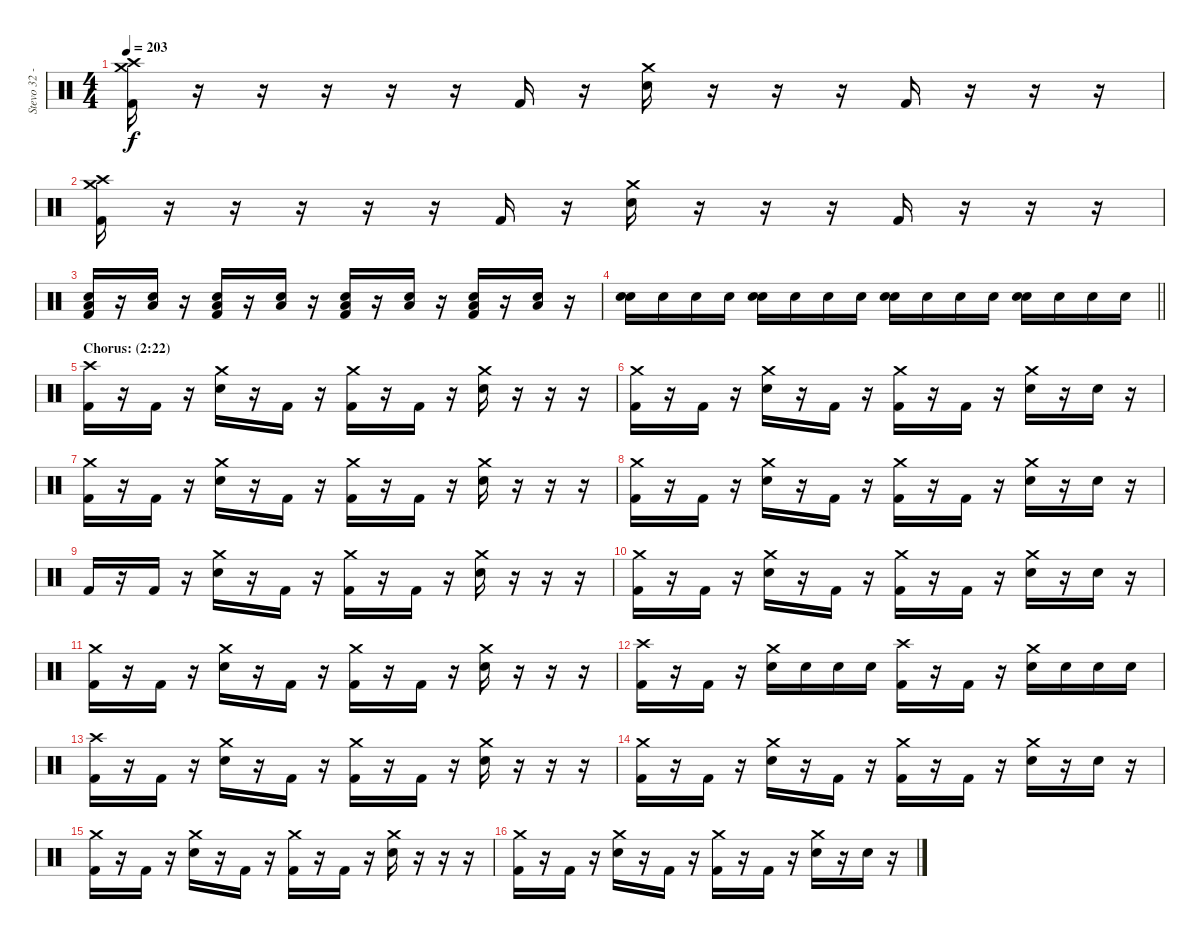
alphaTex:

\track ("Stevo 32 - Drums" "Stevo 32 -") {instrument percussion}
\staff {score}
\articulation defaults
\ts (4 4)
\tempo 203
\clef neutral
\ks c
("Crash high (hit)" "Crash medium (hit)" "Kick (hit) 2").16{dy f} r.16 r.16 r.16 r.16 r.16 "Kick (hit) 2".16 r.16 ("Crash medium (hit)" "Snare (hit) 2").16 r.16 r.16 r.16 "Kick (hit) 2".16 r.16 r.16 r.16 |
("Crash high (hit)" "Crash medium (hit)" "Kick (hit) 2").16 r.16 r.16 r.16 r.16 r.16 "Kick (hit) 2".16 r.16 ("Crash medium (hit)" "Snare (hit) 2").16 r.16 r.16 r.16 "Kick (hit) 2".16 r.16 r.16 r.16 |
("Low Tom (hit)" "Snare (hit) 2" "Kick (hit) 2").16 r.16 ("Low Tom (hit)" "Snare (hit) 2").16 r.16 ("Low Tom (hit)" "Snare (hit) 2" "Kick (hit) 2").16 r.16 ("Low Tom (hit)" "Snare (hit) 2").16 r.16 ("Low Tom (hit)" "Snare (hit) 2" "Kick (hit) 2").16 r.16 ("Low Tom (hit)" "Snare (hit) 2").16 r.16 ("Low Tom (hit)" "Snare (hit) 2" "Kick (hit) 2").16 r.16 ("Low Tom (hit)" "Snare (hit) 2").16 r.16 |
\barLineRight lightlight
("Snare (hit) 2" "Snare (hit) 2").16 "Snare (hit) 2".16 "Snare (hit) 2".16 "Snare (hit) 2".16 ("Snare (hit) 2" "Snare (hit) 2").16 "Snare (hit) 2".16 "Snare (hit) 2".16 "Snare (hit) 2".16 ("Snare (hit) 2" "Snare (hit) 2").16 "Snare (hit) 2".16 "Snare (hit) 2".16 "Snare (hit) 2".16 ("Snare (hit) 2" "Snare (hit) 2").16 "Snare (hit) 2".16 "Snare (hit) 2".16 "Snare (hit) 2".16 |
\section ("" "Chorus: (2:22)")
("Crash high (hit)" "Kick (hit) 2").16 r.16 "Kick (hit) 2".16 r.16 ("Crash medium (hit)" "Snare (hit) 2").16 r.16 "Kick (hit) 2".16 r.16 ("Crash medium (hit)" "Kick (hit) 2").16 r.16 "Kick (hit) 2".16 r.16 ("Crash medium (hit)" "Snare (hit) 2").16 r.16 r.16 r.16 |
("Crash medium (hit)" "Kick (hit) 2").16 r.16 "Kick (hit) 2".16 r.16 ("Crash medium (hit)" "Snare (hit) 2").16 r.16 "Kick (hit) 2".16 r.16 ("Crash medium (hit)" "Kick (hit) 2").16 r.16 "Kick (hit) 2".16 r.16 ("Crash medium (hit)" "Snare (hit) 2").16 r.16 "Snare (hit) 2".16 r.16 |
("Crash medium (hit)" "Kick (hit) 2").16 r.16 "Kick (hit) 2".16 r.16 ("Crash medium (hit)" "Snare (hit) 2").16 r.16 "Kick (hit) 2".16 r.16 ("Crash medium (hit)" "Kick (hit) 2").16 r.16 "Kick (hit) 2".16 r.16 ("Crash medium (hit)" "Snare (hit) 2").16 r.16 r.16 r.16 |
("Crash medium (hit)" "Kick (hit) 2").16 r.16 "Kick (hit) 2".16 r.16 ("Crash medium (hit)" "Snare (hit) 2").16 r.16 "Kick (hit) 2".16 r.16 ("Crash medium (hit)" "Kick (hit) 2").16 r.16 "Kick (hit) 2".16 r.16 ("Crash medium (hit)" "Snare (hit) 2").16 r.16 "Snare (hit) 2".16 r.16 |
"Kick (hit) 2".16 r.16 "Kick (hit) 2".16 r.16 ("Crash medium (hit)" "Snare (hit) 2").16 r.16 "Kick (hit) 2".16 r.16 ("Crash medium (hit)" "Kick (hit) 2").16 r.16 "Kick (hit) 2".16 r.16 ("Crash medium (hit)" "Snare (hit) 2").16 r.16 r.16 r.16 |
("Crash medium (hit)" "Kick (hit) 2").16 r.16 "Kick (hit) 2".16 r.16 ("Crash medium (hit)" "Snare (hit) 2").16 r.16 "Kick (hit) 2".16 r.16 ("Crash medium (hit)" "Kick (hit) 2").16 r.16 "Kick (hit) 2".16 r.16 ("Crash medium (hit)" "Snare (hit) 2").16 r.16 "Snare (hit) 2".16 r.16 |
("Crash medium (hit)" "Kick (hit) 2").16 r.16 "Kick (hit) 2".16 r.16 ("Crash medium (hit)" "Snare (hit) 2").16 r.16 "Kick (hit) 2".16 r.16 ("Crash medium (hit)" "Kick (hit) 2").16 r.16 "Kick (hit) 2".16 r.16 ("Crash medium (hit)" "Snare (hit) 2").16 r.16 r.16 r.16 |
("Crash high (hit)" "Kick (hit) 2").16 r.16 "Kick (hit) 2".16 r.16 ("Crash medium (hit)" "Snare (hit) 2").16 "Snare (hit) 2".16 "Snare (hit) 2".16 "Snare (hit) 2".16 ("Crash high (hit)" "Kick (hit) 2").16 r.16 "Kick (hit) 2".16 r.16 ("Crash medium (hit)" "Snare (hit) 2").16 "Snare (hit) 2".16 "Snare (hit) 2".16 "Snare (hit) 2".16 |
("Crash high (hit)" "Kick (hit) 2").16 r.16 "Kick (hit) 2".16 r.16 ("Crash medium (hit)" "Snare (hit) 2").16 r.16 "Kick (hit) 2".16 r.16 ("Crash medium (hit)" "Kick (hit) 2").16 r.16 "Kick (hit) 2".16 r.16 ("Crash medium (hit)" "Snare (hit) 2").16 r.16 r.16 r.16 |
("Crash medium (hit)" "Kick (hit) 2").16 r.16 "Kick (hit) 2".16 r.16 ("Crash medium (hit)" "Snare (hit) 2").16 r.16 "Kick (hit) 2".16 r.16 ("Crash medium (hit)" "Kick (hit) 2").16 r.16 "Kick (hit) 2".16 r.16 ("Crash medium (hit)" "Snare (hit) 2").16 r.16 "Snare (hit) 2".16 r.16 |
("Crash medium (hit)" "Kick (hit) 2").16 r.16 "Kick (hit) 2".16 r.16 ("Crash medium (hit)" "Snare (hit) 2").16 r.16 "Kick (hit) 2".16 r.16 ("Crash medium (hit)" "Kick (hit) 2").16 r.16 "Kick (hit) 2".16 r.16 ("Crash medium (hit)" "Snare (hit) 2").16 r.16 r.16 r.16 |
("Crash medium (hit)" "Kick (hit) 2").16 r.16 "Kick (hit) 2".16 r.16 ("Crash medium (hit)" "Snare (hit) 2").16 r.16 "Kick (hit) 2".16 r.16 ("Crash medium (hit)" "Kick (hit) 2").16 r.16 "Kick (hit) 2".16 r.16 ("Crash medium (hit)" "Snare (hit) 2").16 r.16 "Snare (hit) 2".16 r.16
